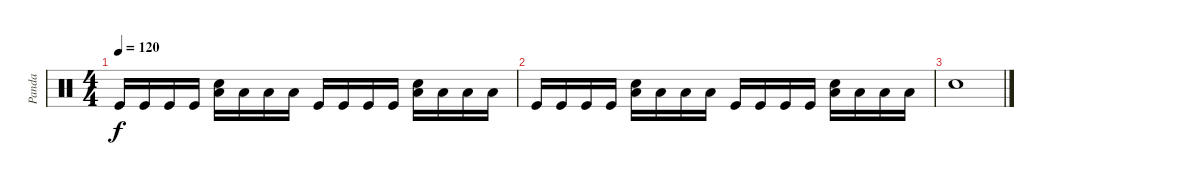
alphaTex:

\track ("Panda" "Panda") {instrument percussion}
\staff {score}
\articulation defaults
\ts (4 4)
\tempo 120
\clef neutral
\ks c "Kick (hit)".16{dy f} "Kick (hit)".16 "Kick (hit)".16 "Kick (hit)".16
("Electric Snare (hit)" "Low Floor Tom (hit)").16 "Low Floor Tom (hit)".16 "Low Floor Tom (hit)".16 "Low Floor Tom (hit)".16 "Kick (hit)".16 "Kick (hit)".16 "Kick (hit)".16 "Kick (hit)".16 ("Electric Snare (hit)" "Low Floor Tom (hit)").16 "Low Floor Tom (hit)".16 "Low Floor Tom (hit)".16 "Low Floor Tom (hit)".16 |
"Kick (hit)".16 "Kick (hit)".16 "Kick (hit)".16 "Kick (hit)".16 ("Electric Snare (hit)" "Low Floor Tom (hit)").16 "Low Floor Tom (hit)".16 "Low Floor Tom (hit)".16 "Low Floor Tom (hit)".16 "Kick (hit)".16 "Kick (hit)".16 "Kick (hit)".16 "Kick (hit)".16 ("Electric Snare (hit)" "Low Floor Tom (hit)").16 "Low Floor Tom (hit)".16 "Low Floor Tom (hit)".16 "Low Floor Tom (hit)".16 |
"Electric Snare (hit)".1
